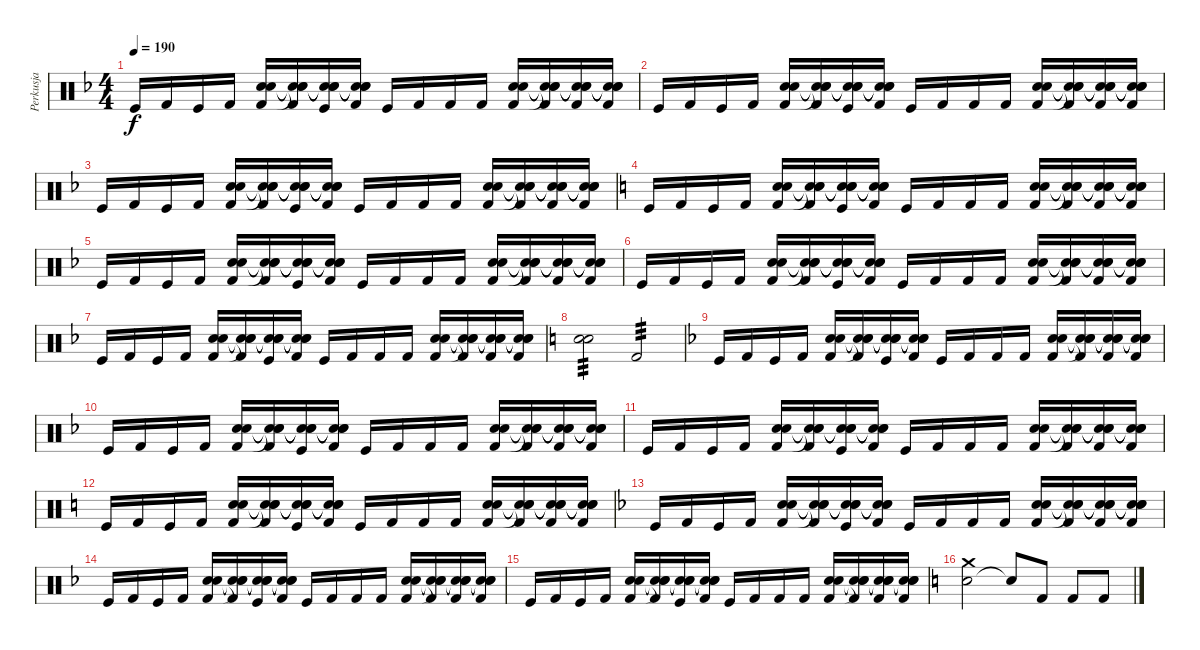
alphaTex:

\track ("Perkusja" "Perkusja") {instrument percussion}
\staff {score}
\articulation defaults
\ts (4 4)
\tempo 190
\clef neutral
\ks dminor "Kick (hit)".16{dy f} "Kick (hit) 2".16 "Kick (hit)".16 "Kick (hit) 2".16
("Electric Snare (hit)" "Snare (hit) 2" "Kick (hit) 2").16 ("Snare (hit)"{t} "Snare (hit)"{t} "Snare (hit)"{t} "Kick (hit) 2").16 ("Snare (hit)"{t} "Snare (hit)"{t} "Snare (hit)"{t} "Kick (hit)").16 ("Snare (hit)"{t} "Snare (hit)"{t} "Snare (hit)"{t} "Kick (hit) 2").16 "Kick (hit)".16 "Kick (hit) 2".16 "Kick (hit) 2".16 "Kick (hit) 2".16 ("Electric Snare (hit)" "Snare (hit) 2" "Kick (hit) 2").16 ("Snare (hit)"{t} "Snare (hit)"{t} "Snare (hit)"{t} "Kick (hit) 2").16 ("Snare (hit)"{t} "Snare (hit)"{t} "Snare (hit)"{t} "Kick (hit) 2").16 ("Snare (hit)"{t} "Snare (hit)"{t} "Snare (hit)"{t} "Kick (hit) 2").16 |
"Kick (hit)".16 "Kick (hit) 2".16 "Kick (hit)".16 "Kick (hit) 2".16 ("Electric Snare (hit)" "Snare (hit) 2" "Kick (hit) 2").16 ("Snare (hit)"{t} "Snare (hit)"{t} "Snare (hit)"{t} "Kick (hit) 2").16 ("Snare (hit)"{t} "Snare (hit)"{t} "Snare (hit)"{t} "Kick (hit)").16 ("Snare (hit)"{t} "Snare (hit)"{t} "Snare (hit)"{t} "Kick (hit) 2").16 "Kick (hit)".16 "Kick (hit) 2".16 "Kick (hit) 2".16 "Kick (hit) 2".16 ("Electric Snare (hit)" "Snare (hit) 2" "Kick (hit) 2").16 ("Snare (hit)"{t} "Snare (hit)"{t} "Snare (hit)"{t} "Kick (hit) 2").16 ("Snare (hit)"{t} "Snare (hit)"{t} "Snare (hit)"{t} "Kick (hit) 2").16 ("Snare (hit)"{t} "Snare (hit)"{t} "Snare (hit)"{t} "Kick (hit) 2").16 |
"Kick (hit)".16 "Kick (hit) 2".16 "Kick (hit)".16 "Kick (hit) 2".16 ("Electric Snare (hit)" "Snare (hit) 2" "Kick (hit) 2").16 ("Snare (hit)"{t} "Snare (hit)"{t} "Snare (hit)"{t} "Kick (hit) 2").16 ("Snare (hit)"{t} "Snare (hit)"{t} "Snare (hit)"{t} "Kick (hit)").16 ("Snare (hit)"{t} "Snare (hit)"{t} "Snare (hit)"{t} "Kick (hit) 2").16 "Kick (hit)".16 "Kick (hit) 2".16 "Kick (hit) 2".16 "Kick (hit) 2".16 ("Electric Snare (hit)" "Snare (hit) 2" "Kick (hit) 2").16 ("Snare (hit)"{t} "Snare (hit)"{t} "Snare (hit)"{t} "Kick (hit) 2").16 ("Snare (hit)"{t} "Snare (hit)"{t} "Snare (hit)"{t} "Kick (hit) 2").16 ("Snare (hit)"{t} "Snare (hit)"{t} "Snare (hit)"{t} "Kick (hit) 2").16 |
\ks c "Kick (hit)".16 "Kick (hit) 2".16 "Kick (hit)".16 "Kick (hit) 2".16
("Electric Snare (hit)" "Snare (hit) 2" "Kick (hit) 2").16 ("Snare (hit)"{t} "Snare (hit)"{t} "Snare (hit)"{t} "Kick (hit) 2").16 ("Snare (hit)"{t} "Snare (hit)"{t} "Snare (hit)"{t} "Kick (hit)").16 ("Snare (hit)"{t} "Snare (hit)"{t} "Snare (hit)"{t} "Kick (hit) 2").16 "Kick (hit)".16 "Kick (hit) 2".16 "Kick (hit) 2".16 "Kick (hit) 2".16 ("Electric Snare (hit)" "Snare (hit) 2" "Kick (hit) 2").16 ("Snare (hit)"{t} "Snare (hit)"{t} "Snare (hit)"{t} "Kick (hit) 2").16 ("Snare (hit)"{t} "Snare (hit)"{t} "Snare (hit)"{t} "Kick (hit) 2").16 ("Snare (hit)"{t} "Snare (hit)"{t} "Snare (hit)"{t} "Kick (hit) 2").16 |
\ks dminor "Kick (hit)".16 "Kick (hit) 2".16 "Kick (hit)".16 "Kick (hit) 2".16
("Electric Snare (hit)" "Snare (hit) 2" "Kick (hit) 2").16 ("Snare (hit)"{t} "Snare (hit)"{t} "Snare (hit)"{t} "Kick (hit) 2").16 ("Snare (hit)"{t} "Snare (hit)"{t} "Snare (hit)"{t} "Kick (hit)").16 ("Snare (hit)"{t} "Snare (hit)"{t} "Snare (hit)"{t} "Kick (hit) 2").16 "Kick (hit)".16 "Kick (hit) 2".16 "Kick (hit) 2".16 "Kick (hit) 2".16 ("Electric Snare (hit)" "Snare (hit) 2" "Kick (hit) 2").16 ("Snare (hit)"{t} "Snare (hit)"{t} "Snare (hit)"{t} "Kick (hit) 2").16 ("Snare (hit)"{t} "Snare (hit)"{t} "Snare (hit)"{t} "Kick (hit) 2").16 ("Snare (hit)"{t} "Snare (hit)"{t} "Snare (hit)"{t} "Kick (hit) 2").16 |
"Kick (hit)".16 "Kick (hit) 2".16 "Kick (hit)".16 "Kick (hit) 2".16 ("Electric Snare (hit)" "Snare (hit) 2" "Kick (hit) 2").16 ("Snare (hit)"{t} "Snare (hit)"{t} "Snare (hit)"{t} "Kick (hit) 2").16 ("Snare (hit)"{t} "Snare (hit)"{t} "Snare (hit)"{t} "Kick (hit)").16 ("Snare (hit)"{t} "Snare (hit)"{t} "Snare (hit)"{t} "Kick (hit) 2").16 "Kick (hit)".16 "Kick (hit) 2".16 "Kick (hit) 2".16 "Kick (hit) 2".16 ("Electric Snare (hit)" "Snare (hit) 2" "Kick (hit) 2").16 ("Snare (hit)"{t} "Snare (hit)"{t} "Snare (hit)"{t} "Kick (hit) 2").16 ("Snare (hit)"{t} "Snare (hit)"{t} "Snare (hit)"{t} "Kick (hit) 2").16 ("Snare (hit)"{t} "Snare (hit)"{t} "Snare (hit)"{t} "Kick (hit) 2").16 |
"Kick (hit)".16 "Kick (hit) 2".16 "Kick (hit)".16 "Kick (hit) 2".16 ("Electric Snare (hit)" "Snare (hit) 2" "Kick (hit) 2").16 ("Snare (hit)"{t} "Snare (hit)"{t} "Snare (hit)"{t} "Kick (hit) 2").16 ("Snare (hit)"{t} "Snare (hit)"{t} "Snare (hit)"{t} "Kick (hit)").16 ("Snare (hit)"{t} "Snare (hit)"{t} "Snare (hit)"{t} "Kick (hit) 2").16 "Kick (hit)".16 "Kick (hit) 2".16 "Kick (hit) 2".16 "Kick (hit) 2".16 ("Electric Snare (hit)" "Snare (hit) 2" "Kick (hit) 2").16 ("Snare (hit)"{t} "Snare (hit)"{t} "Snare (hit)"{t} "Kick (hit) 2").16 ("Snare (hit)"{t} "Snare (hit)"{t} "Snare (hit)"{t} "Kick (hit) 2").16 ("Snare (hit)"{t} "Snare (hit)"{t} "Snare (hit)"{t} "Kick (hit) 2").16 |
\ks c
("Electric Snare (hit)" "Snare (hit) 2").2{tp 3 volume 9} "Kick (hit) 2".2{tp 3} |
\ks dminor "Kick (hit)".16{volume 11} "Kick (hit) 2".16 "Kick (hit)".16 "Kick (hit) 2".16
("Electric Snare (hit)" "Snare (hit) 2" "Kick (hit) 2").16 ("Snare (hit)"{t} "Snare (hit)"{t} "Snare (hit)"{t} "Kick (hit) 2").16 ("Snare (hit)"{t} "Snare (hit)"{t} "Snare (hit)"{t} "Kick (hit)").16 ("Snare (hit)"{t} "Snare (hit)"{t} "Snare (hit)"{t} "Kick (hit) 2").16 "Kick (hit)".16 "Kick (hit) 2".16 "Kick (hit) 2".16 "Kick (hit) 2".16 ("Electric Snare (hit)" "Snare (hit) 2" "Kick (hit) 2").16 ("Snare (hit)"{t} "Snare (hit)"{t} "Snare (hit)"{t} "Kick (hit) 2").16 ("Snare (hit)"{t} "Snare (hit)"{t} "Snare (hit)"{t} "Kick (hit) 2").16 ("Snare (hit)"{t} "Snare (hit)"{t} "Snare (hit)"{t} "Kick (hit) 2").16 |
"Kick (hit)".16 "Kick (hit) 2".16 "Kick (hit)".16 "Kick (hit) 2".16 ("Electric Snare (hit)" "Snare (hit) 2" "Kick (hit) 2").16 ("Snare (hit)"{t} "Snare (hit)"{t} "Snare (hit)"{t} "Kick (hit) 2").16 ("Snare (hit)"{t} "Snare (hit)"{t} "Snare (hit)"{t} "Kick (hit)").16 ("Snare (hit)"{t} "Snare (hit)"{t} "Snare (hit)"{t} "Kick (hit) 2").16 "Kick (hit)".16 "Kick (hit) 2".16 "Kick (hit) 2".16 "Kick (hit) 2".16 ("Electric Snare (hit)" "Snare (hit) 2" "Kick (hit) 2").16 ("Snare (hit)"{t} "Snare (hit)"{t} "Snare (hit)"{t} "Kick (hit) 2").16 ("Snare (hit)"{t} "Snare (hit)"{t} "Snare (hit)"{t} "Kick (hit) 2").16 ("Snare (hit)"{t} "Snare (hit)"{t} "Snare (hit)"{t} "Kick (hit) 2").16 |
"Kick (hit)".16 "Kick (hit) 2".16 "Kick (hit)".16 "Kick (hit) 2".16 ("Electric Snare (hit)" "Snare (hit) 2" "Kick (hit) 2").16 ("Snare (hit)"{t} "Snare (hit)"{t} "Snare (hit)"{t} "Kick (hit) 2").16 ("Snare (hit)"{t} "Snare (hit)"{t} "Snare (hit)"{t} "Kick (hit)").16 ("Snare (hit)"{t} "Snare (hit)"{t} "Snare (hit)"{t} "Kick (hit) 2").16 "Kick (hit)".16 "Kick (hit) 2".16 "Kick (hit) 2".16 "Kick (hit) 2".16 ("Electric Snare (hit)" "Snare (hit) 2" "Kick (hit) 2").16 ("Snare (hit)"{t} "Snare (hit)"{t} "Snare (hit)"{t} "Kick (hit) 2").16 ("Snare (hit)"{t} "Snare (hit)"{t} "Snare (hit)"{t} "Kick (hit) 2").16 ("Snare (hit)"{t} "Snare (hit)"{t} "Snare (hit)"{t} "Kick (hit) 2").16 |
\ks c "Kick (hit)".16 "Kick (hit) 2".16 "Kick (hit)".16 "Kick (hit) 2".16
("Electric Snare (hit)" "Snare (hit) 2" "Kick (hit) 2").16 ("Snare (hit)"{t} "Snare (hit)"{t} "Snare (hit)"{t} "Kick (hit) 2").16 ("Snare (hit)"{t} "Snare (hit)"{t} "Snare (hit)"{t} "Kick (hit)").16 ("Snare (hit)"{t} "Snare (hit)"{t} "Snare (hit)"{t} "Kick (hit) 2").16 "Kick (hit)".16 "Kick (hit) 2".16 "Kick (hit) 2".16 "Kick (hit) 2".16 ("Electric Snare (hit)" "Snare (hit) 2" "Kick (hit) 2").16 ("Snare (hit)"{t} "Snare (hit)"{t} "Snare (hit)"{t} "Kick (hit) 2").16 ("Snare (hit)"{t} "Snare (hit)"{t} "Snare (hit)"{t} "Kick (hit) 2").16 ("Snare (hit)"{t} "Snare (hit)"{t} "Snare (hit)"{t} "Kick (hit) 2").16 |
\ks dminor "Kick (hit)".16 "Kick (hit) 2".16 "Kick (hit)".16 "Kick (hit) 2".16
("Electric Snare (hit)" "Snare (hit) 2" "Kick (hit) 2").16 ("Snare (hit)"{t} "Snare (hit)"{t} "Snare (hit)"{t} "Kick (hit) 2").16 ("Snare (hit)"{t} "Snare (hit)"{t} "Snare (hit)"{t} "Kick (hit)").16 ("Snare (hit)"{t} "Snare (hit)"{t} "Snare (hit)"{t} "Kick (hit) 2").16 "Kick (hit)".16 "Kick (hit) 2".16 "Kick (hit) 2".16 "Kick (hit) 2".16 ("Electric Snare (hit)" "Snare (hit) 2" "Kick (hit) 2").16 ("Snare (hit)"{t} "Snare (hit)"{t} "Snare (hit)"{t} "Kick (hit) 2").16 ("Snare (hit)"{t} "Snare (hit)"{t} "Snare (hit)"{t} "Kick (hit) 2").16 ("Snare (hit)"{t} "Snare (hit)"{t} "Snare (hit)"{t} "Kick (hit) 2").16 |
"Kick (hit)".16 "Kick (hit) 2".16 "Kick (hit)".16 "Kick (hit) 2".16 ("Electric Snare (hit)" "Snare (hit) 2" "Kick (hit) 2").16 ("Snare (hit)"{t} "Snare (hit)"{t} "Snare (hit)"{t} "Kick (hit) 2").16 ("Snare (hit)"{t} "Snare (hit)"{t} "Snare (hit)"{t} "Kick (hit)").16 ("Snare (hit)"{t} "Snare (hit)"{t} "Snare (hit)"{t} "Kick (hit) 2").16 "Kick (hit)".16 "Kick (hit) 2".16 "Kick (hit) 2".16 "Kick (hit) 2".16 ("Electric Snare (hit)" "Snare (hit) 2" "Kick (hit) 2").16 ("Snare (hit)"{t} "Snare (hit)"{t} "Snare (hit)"{t} "Kick (hit) 2").16 ("Snare (hit)"{t} "Snare (hit)"{t} "Snare (hit)"{t} "Kick (hit) 2").16 ("Snare (hit)"{t} "Snare (hit)"{t} "Snare (hit)"{t} "Kick (hit) 2").16 |
"Kick (hit)".16 "Kick (hit) 2".16 "Kick (hit)".16 "Kick (hit) 2".16 ("Electric Snare (hit)" "Snare (hit) 2" "Kick (hit) 2").16 ("Snare (hit)"{t} "Snare (hit)"{t} "Snare (hit)"{t} "Kick (hit) 2").16 ("Snare (hit)"{t} "Snare (hit)"{t} "Snare (hit)"{t} "Kick (hit)").16 ("Snare (hit)"{t} "Snare (hit)"{t} "Snare (hit)"{t} "Kick (hit) 2").16 "Kick (hit)".16 "Kick (hit) 2".16 "Kick (hit) 2".16 "Kick (hit) 2".16 ("Electric Snare (hit)" "Snare (hit) 2" "Kick (hit) 2").16 ("Snare (hit)"{t} "Snare (hit)"{t} "Snare (hit)"{t} "Kick (hit) 2").16 ("Snare (hit)"{t} "Snare (hit)"{t} "Snare (hit)"{t} "Kick (hit) 2").16 ("Snare (hit)"{t} "Snare (hit)"{t} "Snare (hit)"{t} "Kick (hit) 2").16 |
\ks c
("Electric Snare (hit)" "Crash medium (hit)").2 "Snare (hit)"{t}.8 "Kick (hit) 2".8 "Kick (hit) 2".8 "Kick (hit) 2".8
